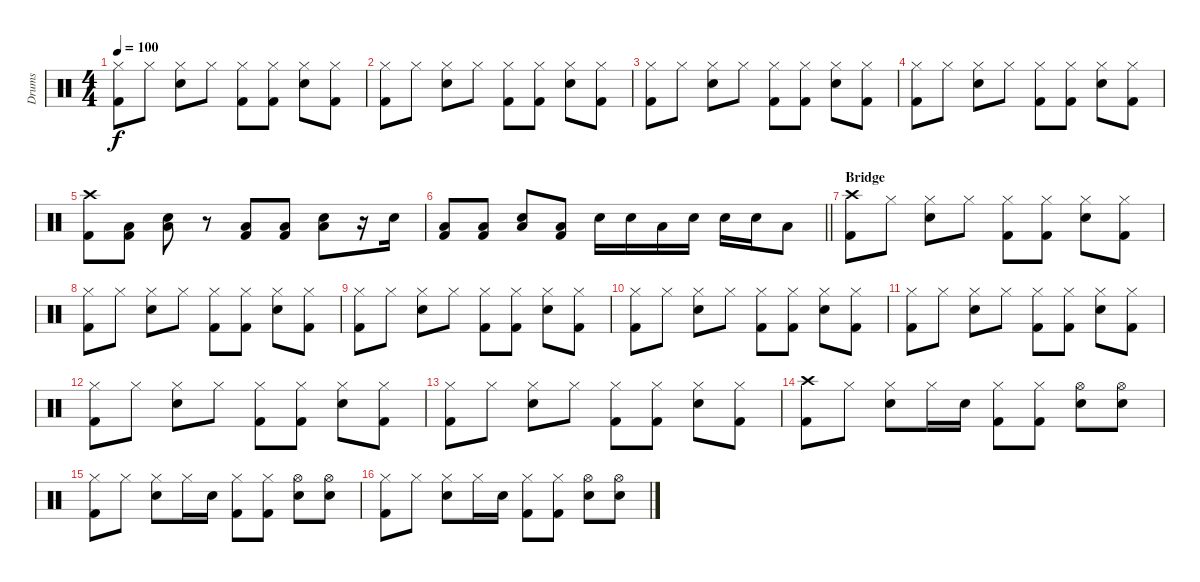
\track ("Drums" "Drums") {instrument percussion}
\staff {score}
\articulation defaults
\ts (4 4)
\tempo 100
\clef neutral
\ks c
("Hi-Hat (closed)" "Kick (hit) 2").8{dy f} "Hi-Hat (closed)".8 ("Hi-Hat (closed)" "Electric Snare (hit)").8 "Hi-Hat (closed)".8 ("Hi-Hat (closed)" "Kick (hit) 2").8 ("Hi-Hat (closed)" "Kick (hit) 2").8 ("Hi-Hat (closed)" "Electric Snare (hit)").8 ("Hi-Hat (closed)" "Kick (hit) 2").8 |
("Hi-Hat (closed)" "Kick (hit) 2").8 "Hi-Hat (closed)".8 ("Hi-Hat (closed)" "Electric Snare (hit)").8 "Hi-Hat (closed)".8 ("Hi-Hat (closed)" "Kick (hit) 2").8 ("Hi-Hat (closed)" "Kick (hit) 2").8 ("Hi-Hat (closed)" "Electric Snare (hit)").8 ("Hi-Hat (closed)" "Kick (hit) 2").8 |
("Hi-Hat (closed)" "Kick (hit) 2").8 "Hi-Hat (closed)".8 ("Hi-Hat (closed)" "Electric Snare (hit)").8 "Hi-Hat (closed)".8 ("Hi-Hat (closed)" "Kick (hit) 2").8 ("Hi-Hat (closed)" "Kick (hit) 2").8 ("Hi-Hat (closed)" "Electric Snare (hit)").8 ("Hi-Hat (closed)" "Kick (hit) 2").8 |
("Hi-Hat (closed)" "Kick (hit) 2").8 "Hi-Hat (closed)".8 ("Hi-Hat (closed)" "Electric Snare (hit)").8 "Hi-Hat (closed)".8 ("Hi-Hat (closed)" "Kick (hit) 2").8 ("Hi-Hat (closed)" "Kick (hit) 2").8 ("Hi-Hat (closed)" "Electric Snare (hit)").8 ("Hi-Hat (closed)" "Kick (hit) 2").8 |
("Crash high (hit)" "Kick (hit) 2").8 ("Low Floor Tom (hit)" "Kick (hit) 2").8 ("Electric Snare (hit)" "Low Floor Tom (hit)").8 r.8 ("Low Floor Tom (hit)" "Kick (hit) 2").8 ("Low Floor Tom (hit)" "Kick (hit) 2").8 ("Electric Snare (hit)" "Low Floor Tom (hit)").8 r.16 "Electric Snare (hit)".16 |
\barLineRight lightlight
("Low Floor Tom (hit)" "Kick (hit) 2").8 ("Low Floor Tom (hit)" "Kick (hit) 2").8 ("Electric Snare (hit)" "Low Floor Tom (hit)").8 ("Low Floor Tom (hit)" "Kick (hit) 2").8 "Electric Snare (hit)".16 "Electric Snare (hit)".16 "Low Floor Tom (hit)".16 "Electric Snare (hit)".16 "Electric Snare (hit)".16 "Electric Snare (hit)".16 "Low Floor Tom (hit)".8 |
\section ("" "Bridge")
("Crash high (hit)" "Kick (hit) 2").8 "Hi-Hat (closed)".8 ("Hi-Hat (closed)" "Electric Snare (hit)").8 "Hi-Hat (closed)".8 ("Hi-Hat (closed)" "Kick (hit) 2").8 ("Hi-Hat (closed)" "Kick (hit) 2").8 ("Hi-Hat (closed)" "Electric Snare (hit)").8 ("Hi-Hat (closed)" "Kick (hit) 2").8 |
("Hi-Hat (closed)" "Kick (hit) 2").8 "Hi-Hat (closed)".8 ("Hi-Hat (closed)" "Electric Snare (hit)").8 "Hi-Hat (closed)".8 ("Hi-Hat (closed)" "Kick (hit) 2").8 ("Hi-Hat (closed)" "Kick (hit) 2").8 ("Hi-Hat (closed)" "Electric Snare (hit)").8 ("Hi-Hat (closed)" "Kick (hit) 2").8 |
("Hi-Hat (closed)" "Kick (hit) 2").8 "Hi-Hat (closed)".8 ("Hi-Hat (closed)" "Electric Snare (hit)").8 "Hi-Hat (closed)".8 ("Hi-Hat (closed)" "Kick (hit) 2").8 ("Hi-Hat (closed)" "Kick (hit) 2").8 ("Hi-Hat (closed)" "Electric Snare (hit)").8 ("Hi-Hat (closed)" "Kick (hit) 2").8 |
("Hi-Hat (closed)" "Kick (hit) 2").8 "Hi-Hat (closed)".8 ("Hi-Hat (closed)" "Electric Snare (hit)").8 "Hi-Hat (closed)".8 ("Hi-Hat (closed)" "Kick (hit) 2").8 ("Hi-Hat (closed)" "Kick (hit) 2").8 ("Hi-Hat (closed)" "Electric Snare (hit)").8 ("Hi-Hat (closed)" "Kick (hit) 2").8 |
("Hi-Hat (closed)" "Kick (hit) 2").8 "Hi-Hat (closed)".8 ("Hi-Hat (closed)" "Electric Snare (hit)").8 "Hi-Hat (closed)".8 ("Hi-Hat (closed)" "Kick (hit) 2").8 ("Hi-Hat (closed)" "Kick (hit) 2").8 ("Hi-Hat (closed)" "Electric Snare (hit)").8 ("Hi-Hat (closed)" "Kick (hit) 2").8 |
("Hi-Hat (closed)" "Kick (hit) 2").8 "Hi-Hat (closed)".8 ("Hi-Hat (closed)" "Electric Snare (hit)").8 "Hi-Hat (closed)".8 ("Hi-Hat (closed)" "Kick (hit) 2").8 ("Hi-Hat (closed)" "Kick (hit) 2").8 ("Hi-Hat (closed)" "Electric Snare (hit)").8 ("Hi-Hat (closed)" "Kick (hit) 2").8 |
("Hi-Hat (closed)" "Kick (hit) 2").8 "Hi-Hat (closed)".8 ("Hi-Hat (closed)" "Electric Snare (hit)").8 "Hi-Hat (closed)".8 ("Hi-Hat (closed)" "Kick (hit) 2").8 ("Hi-Hat (closed)" "Kick (hit) 2").8 ("Hi-Hat (closed)" "Electric Snare (hit)").8 ("Hi-Hat (closed)" "Kick (hit) 2").8 |
("Crash high (hit)" "Kick (hit) 2").8 "Hi-Hat (closed)".8 ("Hi-Hat (closed)" "Electric Snare (hit)").8 "Hi-Hat (closed)".16 "Electric Snare (hit)".16 ("Hi-Hat (closed)" "Kick (hit) 2").8 ("Hi-Hat (closed)" "Kick (hit) 2").8 ("Hi-Hat (open)" "Electric Snare (hit)").8 ("Hi-Hat (open)" "Electric Snare (hit)").8 |
("Hi-Hat (closed)" "Kick (hit) 2").8 "Hi-Hat (closed)".8 ("Hi-Hat (closed)" "Electric Snare (hit)").8 "Hi-Hat (closed)".16 "Electric Snare (hit)".16 ("Hi-Hat (closed)" "Kick (hit) 2").8 ("Hi-Hat (closed)" "Kick (hit) 2").8 ("Hi-Hat (open)" "Electric Snare (hit)").8 ("Hi-Hat (open)" "Electric Snare (hit)").8 |
("Hi-Hat (closed)" "Kick (hit) 2").8 "Hi-Hat (closed)".8 ("Hi-Hat (closed)" "Electric Snare (hit)").8 "Hi-Hat (closed)".16 "Electric Snare (hit)".16 ("Hi-Hat (closed)" "Kick (hit) 2").8 ("Hi-Hat (closed)" "Kick (hit) 2").8 ("Hi-Hat (open)" "Electric Snare (hit)").8 ("Hi-Hat (open)" "Electric Snare (hit)").8
